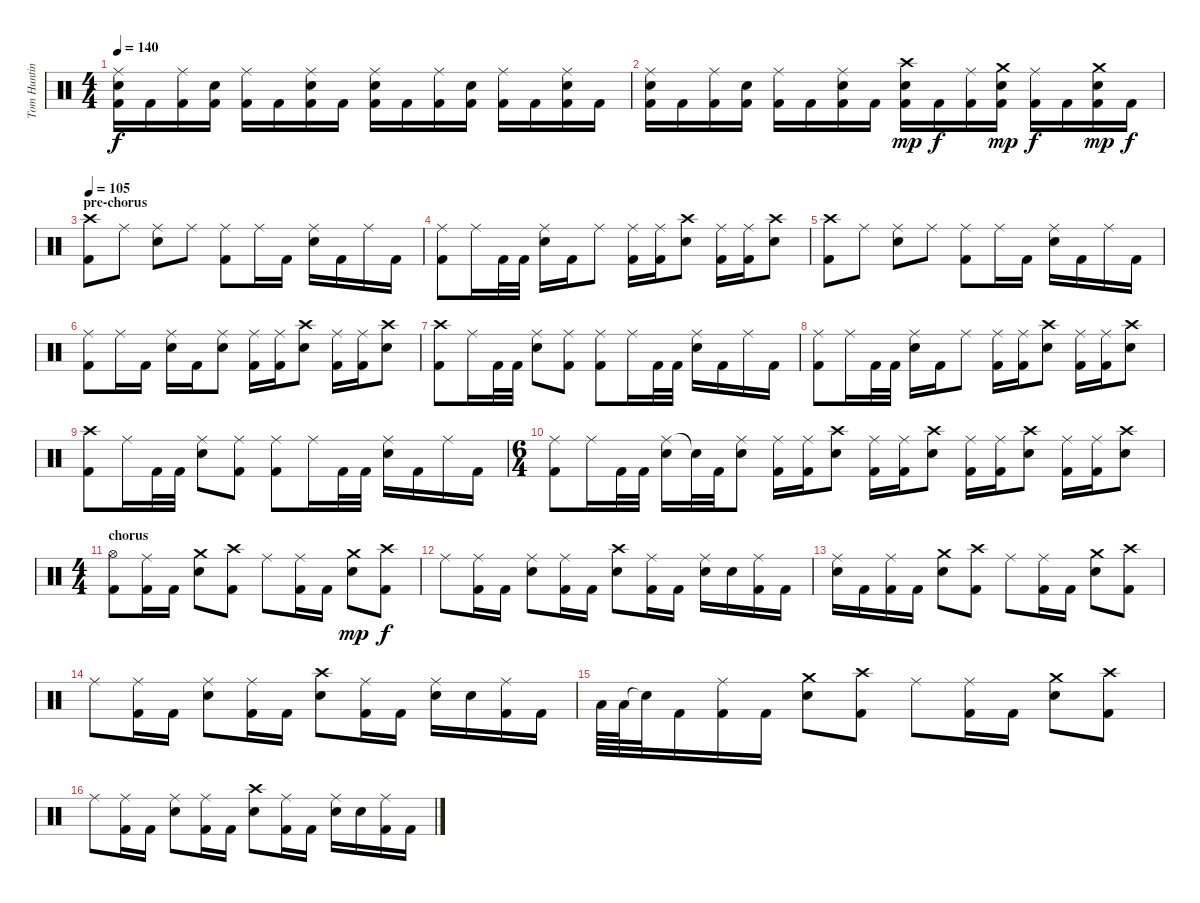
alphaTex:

\track ("Tom Hunting" "Tom Huntin") {instrument percussion}
\staff {score}
\articulation defaults
\ts (4 4)
\tempo 140
\clef neutral
\ks c
("Kick (hit) 2" "Ride (middle)" "Snare (hit) 2").16{dy f} "Kick (hit) 2".16 ("Kick (hit) 2" "Ride (middle)").16 ("Kick (hit) 2" "Snare (hit) 2").16 ("Kick (hit) 2" "Ride (middle)").16 "Kick (hit) 2".16 ("Kick (hit) 2" "Ride (middle)" "Snare (hit) 2").16 "Kick (hit) 2".16 ("Kick (hit) 2" "Ride (middle)" "Snare (hit) 2").16 "Kick (hit) 2".16 ("Kick (hit) 2" "Ride (middle)").16 ("Kick (hit) 2" "Snare (hit) 2").16 ("Kick (hit) 2" "Ride (middle)").16 "Kick (hit) 2".16 ("Kick (hit) 2" "Ride (middle)" "Snare (hit) 2").16 "Kick (hit) 2".16 |
("Kick (hit) 2" "Ride (middle)" "Snare (hit) 2").16 "Kick (hit) 2".16 ("Kick (hit) 2" "Ride (middle)").16 ("Kick (hit) 2" "Snare (hit) 2").16 ("Kick (hit) 2" "Ride (middle)").16 "Kick (hit) 2".16 ("Kick (hit) 2" "Ride (middle)" "Snare (hit) 2").16 "Kick (hit) 2".16 ("Kick (hit) 2" "Crash high (hit)" "Snare (hit) 2").16{dy mp} "Kick (hit) 2".16{dy f} ("Kick (hit) 2" "Ride (middle)").16 ("Kick (hit) 2" "Crash medium (hit)" "Snare (hit) 2").16{dy mp} ("Kick (hit) 2" "Ride (middle)").16{dy f} "Kick (hit) 2".16 ("Kick (hit) 2" "Crash medium (hit)" "Snare (hit) 2").16{dy mp} "Kick (hit) 2".16{dy f} |
\section ("" "pre-chorus")
\tempo 105
("Kick (hit) 2" "Crash high (hit)").8 "Ride (middle)".8 ("Ride (middle)" "Snare (hit) 2").8 "Ride (middle)".8 ("Kick (hit) 2" "Ride (middle)").8 "Ride (middle)".16 "Kick (hit) 2".16 ("Ride (middle)" "Snare (hit) 2").16 "Kick (hit) 2".16 "Ride (middle)".16 "Kick (hit) 2".16 |
("Kick (hit) 2" "Ride (middle)").8 "Ride (middle)".16 "Kick (hit) 2".32 "Kick (hit) 2".32 ("Ride (middle)" "Snare (hit) 2").16 "Kick (hit) 2".16 "Ride (middle)".8 ("Kick (hit) 2" "Ride (middle)").16 ("Kick (hit) 2" "Ride (middle)").16 ("Crash high (hit)" "Snare (hit) 2").8 ("Kick (hit) 2" "Ride (middle)").16 ("Kick (hit) 2" "Ride (middle)").16 ("Crash high (hit)" "Snare (hit) 2").8 |
("Kick (hit) 2" "Crash high (hit)").8 "Ride (middle)".8 ("Ride (middle)" "Snare (hit) 2").8 "Ride (middle)".8 ("Kick (hit) 2" "Ride (middle)").8 "Ride (middle)".16 "Kick (hit) 2".16 ("Ride (middle)" "Snare (hit) 2").16 "Kick (hit) 2".16 "Ride (middle)".16 "Kick (hit) 2".16 |
("Kick (hit) 2" "Ride (middle)").8 "Ride (middle)".16 "Kick (hit) 2".16 ("Ride (middle)" "Snare (hit) 2").16 "Kick (hit) 2".16 ("Ride (middle)" "Snare (hit) 2").8 ("Kick (hit) 2" "Ride (middle)").16 ("Kick (hit) 2" "Ride (middle)").16 ("Crash high (hit)" "Snare (hit) 2").8 ("Kick (hit) 2" "Ride (middle)").16 ("Kick (hit) 2" "Ride (middle)").16 ("Crash high (hit)" "Snare (hit) 2").8 |
("Kick (hit) 2" "Crash high (hit)").8 "Ride (middle)".16 "Kick (hit) 2".32 "Kick (hit) 2".32 ("Ride (middle)" "Snare (hit) 2").8 ("Kick (hit) 2" "Ride (middle)").8 ("Kick (hit) 2" "Ride (middle)").8 "Ride (middle)".16 "Kick (hit) 2".32 "Kick (hit) 2".32 ("Ride (middle)" "Snare (hit) 2").16 "Kick (hit) 2".16 "Ride (middle)".16 "Kick (hit) 2".16 |
("Kick (hit) 2" "Ride (middle)").8 "Ride (middle)".16 "Kick (hit) 2".32 "Kick (hit) 2".32 ("Ride (middle)" "Snare (hit) 2").16 "Kick (hit) 2".16 "Ride (middle)".8 ("Kick (hit) 2" "Ride (middle)").16 ("Kick (hit) 2" "Ride (middle)").16 ("Crash high (hit)" "Snare (hit) 2").8 ("Kick (hit) 2" "Ride (middle)").16 ("Kick (hit) 2" "Ride (middle)").16 ("Crash high (hit)" "Snare (hit) 2").8 |
("Kick (hit) 2" "Crash high (hit)").8 "Ride (middle)".16 "Kick (hit) 2".32 "Kick (hit) 2".32 ("Ride (middle)" "Snare (hit) 2").8 ("Kick (hit) 2" "Ride (middle)").8 ("Kick (hit) 2" "Ride (middle)").8 "Ride (middle)".16 "Kick (hit) 2".32 "Kick (hit) 2".32 ("Ride (middle)" "Snare (hit) 2").16 "Kick (hit) 2".16 "Ride (middle)".16 "Kick (hit) 2".16 |
\ts (6 4)
("Kick (hit) 2" "Ride (middle)").8 "Ride (middle)".16 "Kick (hit) 2".32 "Kick (hit) 2".32 ("Ride (middle)" "Snare (hit) 2").16 "Snare (hit)"{t}.32 "Kick (hit) 2".32 ("Ride (middle)" "Snare (hit) 2").8 ("Kick (hit) 2" "Ride (middle)").16 ("Kick (hit) 2" "Ride (middle)").16 ("Crash high (hit)" "Snare (hit) 2").8 ("Kick (hit) 2" "Ride (middle)").16 ("Kick (hit) 2" "Ride (middle)").16 ("Crash high (hit)" "Snare (hit) 2").8 ("Kick (hit) 2" "Ride (middle)").16 ("Kick (hit) 2" "Ride (middle)").16 ("Crash high (hit)" "Snare (hit) 2").8 ("Kick (hit) 2" "Ride (middle)").16 ("Kick (hit) 2" "Ride (middle)").16 ("Crash high (hit)" "Snare (hit) 2").8 |
\ts (4 4)
\section ("" "chorus")
("Kick (hit) 2" "Hi-Hat (open)").8 ("Kick (hit) 2" "Ride (middle)").16 "Kick (hit) 2".16 ("Crash medium (hit)" "Snare (hit) 2").8 ("Kick (hit) 2" "Crash high (hit)").8 "Ride (middle)".8 ("Kick (hit) 2" "Ride (middle)").16 "Kick (hit) 2".16 ("Crash medium (hit)" "Snare (hit) 2").8{dy mp} ("Kick (hit) 2" "Crash high (hit)").8{dy f} |
"Ride (middle)".8 ("Kick (hit) 2" "Ride (middle)").16 "Kick (hit) 2".16 ("Ride (middle)" "Snare (hit) 2").8 ("Kick (hit) 2" "Ride (middle)").16 "Kick (hit) 2".16 ("Crash high (hit)" "Snare (hit) 2").8 ("Kick (hit) 2" "Ride (middle)").16 "Kick (hit) 2".16 ("Ride (middle)" "Snare (hit) 2").16 "Snare (hit) 2".16 ("Kick (hit) 2" "Ride (middle)").16 "Kick (hit) 2".16 |
("Ride (middle)" "Snare (hit) 2").16 "Kick (hit) 2".16 ("Kick (hit) 2" "Ride (middle)").16 "Kick (hit) 2".16 ("Crash medium (hit)" "Snare (hit) 2").8 ("Kick (hit) 2" "Crash high (hit)").8 "Ride (middle)".8 ("Kick (hit) 2" "Ride (middle)").16 "Kick (hit) 2".16 ("Crash medium (hit)" "Snare (hit) 2").8 ("Kick (hit) 2" "Crash high (hit)").8 |
"Ride (middle)".8 ("Kick (hit) 2" "Ride (middle)").16 "Kick (hit) 2".16 ("Ride (middle)" "Snare (hit) 2").8 ("Kick (hit) 2" "Ride (middle)").16 "Kick (hit) 2".16 ("Crash high (hit)" "Snare (hit) 2").8 ("Kick (hit) 2" "Ride (middle)").16 "Kick (hit) 2".16 ("Ride (middle)" "Snare (hit) 2").16 "Snare (hit) 2".16 ("Kick (hit) 2" "Ride (middle)").16 "Kick (hit) 2".16 |
"Low Tom (hit)".64 "Low Tom (hit)".64 "Snare (hit)"{t}.32 "Kick (hit) 2".16 ("Kick (hit) 2" "Ride (middle)").16 "Kick (hit) 2".16 ("Crash medium (hit)" "Snare (hit) 2").8 ("Kick (hit) 2" "Crash high (hit)").8 "Ride (middle)".8 ("Kick (hit) 2" "Ride (middle)").16 "Kick (hit) 2".16 ("Crash medium (hit)" "Snare (hit) 2").8 ("Kick (hit) 2" "Crash high (hit)").8 |
"Ride (middle)".8 ("Kick (hit) 2" "Ride (middle)").16 "Kick (hit) 2".16 ("Ride (middle)" "Snare (hit) 2").8 ("Kick (hit) 2" "Ride (middle)").16 "Kick (hit) 2".16 ("Crash high (hit)" "Snare (hit) 2").8 ("Kick (hit) 2" "Ride (middle)").16 "Kick (hit) 2".16 ("Ride (middle)" "Snare (hit) 2").16 "Snare (hit) 2".16 ("Kick (hit) 2" "Ride (middle)").16 "Kick (hit) 2".16
